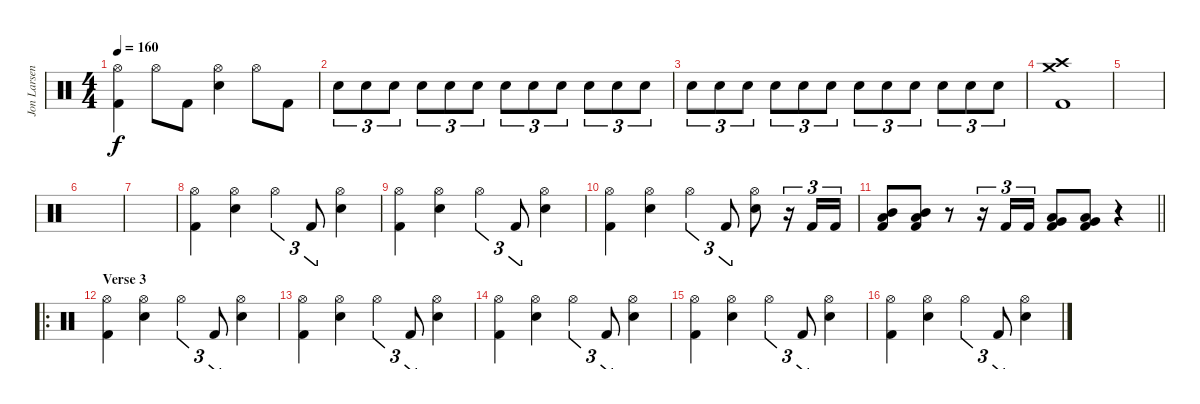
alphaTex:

\track ("Jon Larsen" "Jon Larsen") {instrument percussion}
\staff {score}
\articulation defaults
\ts (4 4)
\tempo 160
\clef neutral
\ks c
("Hi-Hat (open)" "Kick (hit) 2").4{dy f} "Hi-Hat (open)".8 "Kick (hit) 2".8 ("Hi-Hat (open)" "Electric Snare (hit)").4 "Hi-Hat (open)".8 "Kick (hit) 2".8 |
"Electric Snare (hit)".8{tu (3 2)} "Electric Snare (hit)".8{tu (3 2)} "Electric Snare (hit)".8{tu (3 2)} "Electric Snare (hit)".8{tu (3 2)} "Electric Snare (hit)".8{tu (3 2)} "Electric Snare (hit)".8{tu (3 2)} "Electric Snare (hit)".8{tu (3 2)} "Electric Snare (hit)".8{tu (3 2)} "Electric Snare (hit)".8{tu (3 2)} "Electric Snare (hit)".8{tu (3 2)} "Electric Snare (hit)".8{tu (3 2)} "Electric Snare (hit)".8{tu (3 2)} |
"Electric Snare (hit)".8{tu (3 2)} "Electric Snare (hit)".8{tu (3 2)} "Electric Snare (hit)".8{tu (3 2)} "Electric Snare (hit)".8{tu (3 2)} "Electric Snare (hit)".8{tu (3 2)} "Electric Snare (hit)".8{tu (3 2)} "Electric Snare (hit)".8{tu (3 2)} "Electric Snare (hit)".8{tu (3 2)} "Electric Snare (hit)".8{tu (3 2)} "Electric Snare (hit)".8{tu (3 2)} "Electric Snare (hit)".8{tu (3 2)} "Electric Snare (hit)".8{tu (3 2)} |
("Crash high (hit)" "Crash medium (hit)" "Kick (hit) 2").1 |
|
|
|
("Hi-Hat (open)" "Kick (hit) 2").4 ("Hi-Hat (open)" "Electric Snare (hit)").4 "Hi-Hat (open)".4{tu (3 2)} "Kick (hit) 2".8{tu (3 2)} ("Hi-Hat (open)" "Electric Snare (hit)").4 |
("Hi-Hat (open)" "Kick (hit) 2").4 ("Hi-Hat (open)" "Electric Snare (hit)").4 "Hi-Hat (open)".4{tu (3 2)} "Kick (hit) 2".8{tu (3 2)} ("Hi-Hat (open)" "Electric Snare (hit)").4 |
("Hi-Hat (open)" "Kick (hit) 2").4 ("Hi-Hat (open)" "Electric Snare (hit)").4 "Hi-Hat (open)".4{tu (3 2)} "Kick (hit) 2".8{tu (3 2)} ("Hi-Hat (open)" "Electric Snare (hit)").8 r.16{tu (3 2)} "Kick (hit) 2".16{tu (3 2)} "Kick (hit) 2".16{tu (3 2)} |
\barLineRight lightlight
("Mid Tom (hit)" "Low Tom (hit)" "Kick (hit) 2").8 ("Mid Tom (hit)" "Low Tom (hit)" "Kick (hit) 2").8 r.8 r.16{tu (3 2)} "Kick (hit) 2".16{tu (3 2)} "Kick (hit) 2".16{tu (3 2)} ("Low Tom (hit)" "Very Low Tom (hit)" "Kick (hit) 2").8 ("Low Tom (hit)" "Very Low Tom (hit)" "Kick (hit) 2").8 r.4 |
\ro
\section ("" "Verse 3")
("Hi-Hat (open)" "Kick (hit) 2").4 ("Hi-Hat (open)" "Electric Snare (hit)").4 "Hi-Hat (open)".4{tu (3 2)} "Kick (hit) 2".8{tu (3 2)} ("Hi-Hat (open)" "Electric Snare (hit)").4 |
("Hi-Hat (open)" "Kick (hit) 2").4 ("Hi-Hat (open)" "Electric Snare (hit)").4 "Hi-Hat (open)".4{tu (3 2)} "Kick (hit) 2".8{tu (3 2)} ("Hi-Hat (open)" "Electric Snare (hit)").4 |
("Hi-Hat (open)" "Kick (hit) 2").4 ("Hi-Hat (open)" "Electric Snare (hit)").4 "Hi-Hat (open)".4{tu (3 2)} "Kick (hit) 2".8{tu (3 2)} ("Hi-Hat (open)" "Electric Snare (hit)").4 |
("Hi-Hat (open)" "Kick (hit) 2").4 ("Hi-Hat (open)" "Electric Snare (hit)").4 "Hi-Hat (open)".4{tu (3 2)} "Kick (hit) 2".8{tu (3 2)} ("Hi-Hat (open)" "Electric Snare (hit)").4 |
("Hi-Hat (open)" "Kick (hit) 2").4 ("Hi-Hat (open)" "Electric Snare (hit)").4 "Hi-Hat (open)".4{tu (3 2)} "Kick (hit) 2".8{tu (3 2)} ("Hi-Hat (open)" "Electric Snare (hit)").4
